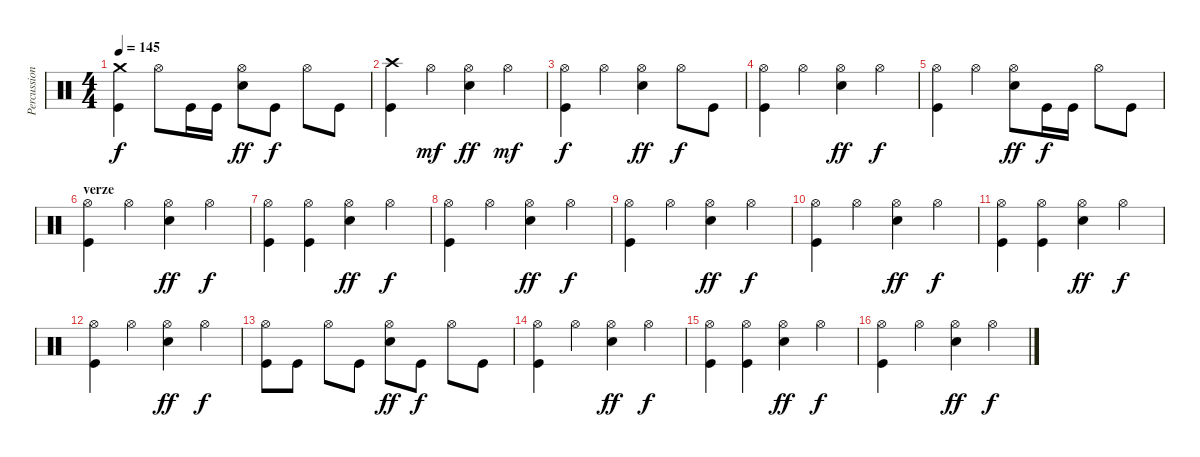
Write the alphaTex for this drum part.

\track ("Percussion" "Percussion") {instrument percussion}
\staff {score}
\articulation defaults
\ts (4 4)
\tempo 145
\clef neutral
\ks c
("Crash medium (hit)" "Kick (hit)").4{dy f} "Hi-Hat (open)".8 "Kick (hit)".16 "Kick (hit)".16 ("Hi-Hat (open)" "Snare (hit) 2").8{dy ff} "Kick (hit)".8{dy f} "Hi-Hat (open)".8 "Kick (hit)".8 |
("Crash high (hit)" "Kick (hit)").4 "Hi-Hat (open)".4{dy mf} ("Hi-Hat (open)" "Snare (hit) 2").4{dy ff} "Hi-Hat (open)".4{dy mf} |
("Hi-Hat (open)" "Kick (hit)").4{dy f} "Hi-Hat (open)".4 ("Hi-Hat (open)" "Snare (hit) 2").4{dy ff} "Hi-Hat (open)".8{dy f} "Kick (hit)".8 |
("Hi-Hat (open)" "Kick (hit)").4 "Hi-Hat (open)".4 ("Hi-Hat (open)" "Snare (hit) 2").4{dy ff} "Hi-Hat (open)".4{dy f} |
("Hi-Hat (open)" "Kick (hit)").4 "Hi-Hat (open)".4 ("Hi-Hat (open)" "Snare (hit) 2").8{dy ff} "Kick (hit)".16{dy f} "Kick (hit)".16 "Hi-Hat (open)".8 "Kick (hit)".8 |
\section ("" "verze")
("Hi-Hat (open)" "Kick (hit)").4 "Hi-Hat (open)".4 ("Hi-Hat (open)" "Snare (hit) 2").4{dy ff} "Hi-Hat (open)".4{dy f} |
("Hi-Hat (open)" "Kick (hit)").4 ("Hi-Hat (open)" "Kick (hit)").4 ("Hi-Hat (open)" "Snare (hit) 2").4{dy ff} "Hi-Hat (open)".4{dy f} |
("Hi-Hat (open)" "Kick (hit)").4 "Hi-Hat (open)".4 ("Hi-Hat (open)" "Snare (hit) 2").4{dy ff} "Hi-Hat (open)".4{dy f} |
("Hi-Hat (open)" "Kick (hit)").4 "Hi-Hat (open)".4 ("Hi-Hat (open)" "Snare (hit) 2").4{dy ff} "Hi-Hat (open)".4{dy f} |
("Hi-Hat (open)" "Kick (hit)").4 "Hi-Hat (open)".4 ("Hi-Hat (open)" "Snare (hit) 2").4{dy ff} "Hi-Hat (open)".4{dy f} |
("Hi-Hat (open)" "Kick (hit)").4 ("Hi-Hat (open)" "Kick (hit)").4 ("Hi-Hat (open)" "Snare (hit) 2").4{dy ff} "Hi-Hat (open)".4{dy f} |
("Hi-Hat (open)" "Kick (hit)").4 "Hi-Hat (open)".4 ("Hi-Hat (open)" "Snare (hit) 2").4{dy ff} "Hi-Hat (open)".4{dy f} |
("Hi-Hat (open)" "Kick (hit)").8 "Kick (hit)".8 "Hi-Hat (open)".8 "Kick (hit)".8 ("Hi-Hat (open)" "Snare (hit) 2").8{dy ff} "Kick (hit)".8{dy f} "Hi-Hat (open)".8 "Kick (hit)".8 |
("Hi-Hat (open)" "Kick (hit)").4 "Hi-Hat (open)".4 ("Hi-Hat (open)" "Snare (hit) 2").4{dy ff} "Hi-Hat (open)".4{dy f} |
("Hi-Hat (open)" "Kick (hit)").4 ("Hi-Hat (open)" "Kick (hit)").4 ("Hi-Hat (open)" "Snare (hit) 2").4{dy ff} "Hi-Hat (open)".4{dy f} |
("Hi-Hat (open)" "Kick (hit)").4 "Hi-Hat (open)".4 ("Hi-Hat (open)" "Snare (hit) 2").4{dy ff} "Hi-Hat (open)".4{dy f}
